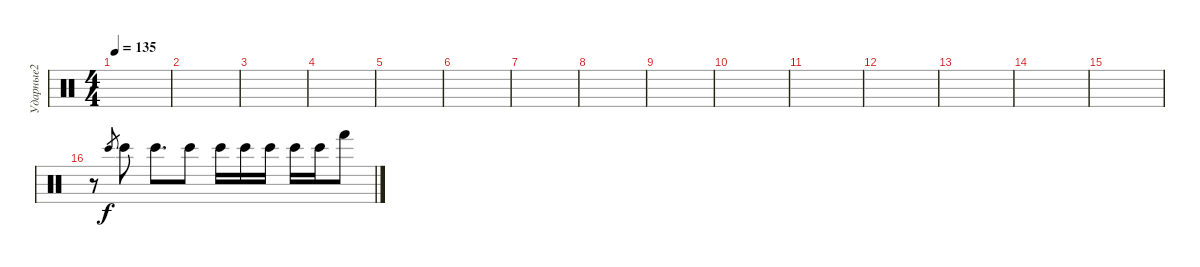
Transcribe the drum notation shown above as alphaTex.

\track ("Ударные2" "Ударные2") {instrument percussion}
\staff {score}
\articulation defaults
\ts (4 4)
\tempo 135
\clef neutral
\ks c
|
|
|
|
|
|
|
|
|
|
|
|
|
|
|
r.8 "Bongo High (hit)".8{gr} "Bongo High (hit)".8 "Bongo High (hit)".8{d} "Bongo High (hit)".8 "Bongo High (hit)".16 "Bongo High (hit)".16 "Bongo High (hit)".16 "Bongo High (hit)".16 "Bongo High (hit)".16 "Hand (hit)".8
